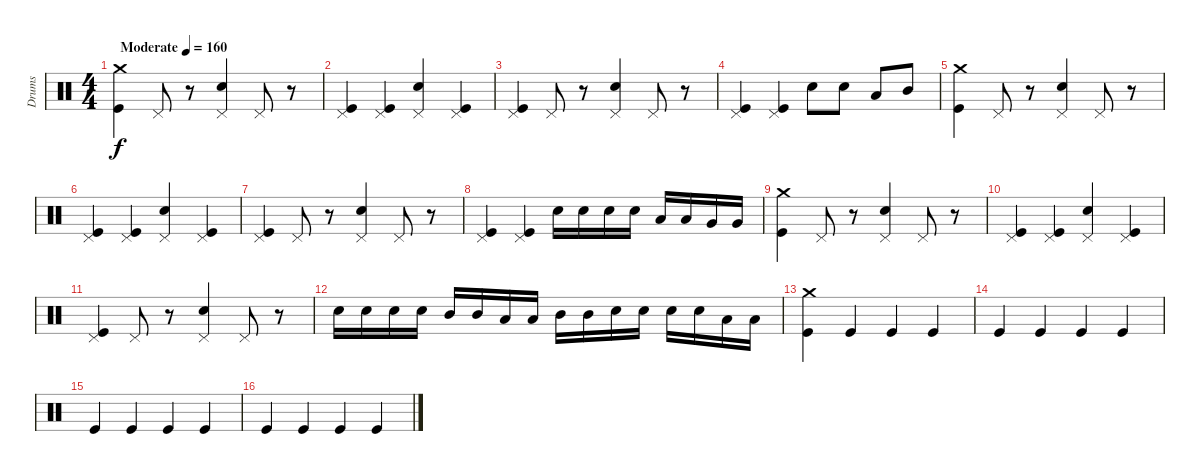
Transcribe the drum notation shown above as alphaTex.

\track ("Drums" "Drums") {instrument percussion}
\staff {score}
\articulation defaults
\ts (4 4)
\tempo (160 "Moderate")
\clef neutral
\ks c
("Crash medium (hit)" "Kick (hit)").4{dy f} "Pedal Hi-Hat (hit)".8 r.8 ("Pedal Hi-Hat (hit)" "Electric Snare (hit)").4 "Pedal Hi-Hat (hit)".8 r.8 |
("Pedal Hi-Hat (hit)" "Kick (hit)").4 ("Pedal Hi-Hat (hit)" "Kick (hit)").4 ("Pedal Hi-Hat (hit)" "Electric Snare (hit)").4 ("Pedal Hi-Hat (hit)" "Kick (hit)").4 |
("Pedal Hi-Hat (hit)" "Kick (hit)").4 "Pedal Hi-Hat (hit)".8 r.8 ("Pedal Hi-Hat (hit)" "Electric Snare (hit)").4 "Pedal Hi-Hat (hit)".8 r.8 |
("Pedal Hi-Hat (hit)" "Kick (hit)").4 ("Pedal Hi-Hat (hit)" "Kick (hit)").4 "Electric Snare (hit)".8 "Electric Snare (hit)".8 "Low Tom (hit)".8 "Mid Tom (hit)".8 |
("Crash medium (hit)" "Kick (hit)").4 "Pedal Hi-Hat (hit)".8 r.8 ("Pedal Hi-Hat (hit)" "Electric Snare (hit)").4 "Pedal Hi-Hat (hit)".8 r.8 |
("Pedal Hi-Hat (hit)" "Kick (hit)").4 ("Pedal Hi-Hat (hit)" "Kick (hit)").4 ("Pedal Hi-Hat (hit)" "Electric Snare (hit)").4 ("Pedal Hi-Hat (hit)" "Kick (hit)").4 |
("Pedal Hi-Hat (hit)" "Kick (hit)").4 "Pedal Hi-Hat (hit)".8 r.8 ("Pedal Hi-Hat (hit)" "Electric Snare (hit)").4 "Pedal Hi-Hat (hit)".8 r.8 |
("Pedal Hi-Hat (hit)" "Kick (hit)").4 ("Pedal Hi-Hat (hit)" "Kick (hit)").4 "Electric Snare (hit)".16 "Electric Snare (hit)".16 "Electric Snare (hit)".16 "Electric Snare (hit)".16 "Low Tom (hit)".16 "Low Tom (hit)".16 "Very Low Tom (hit)".16 "Very Low Tom (hit)".16 |
("Crash medium (hit)" "Kick (hit)").4 "Pedal Hi-Hat (hit)".8 r.8 ("Pedal Hi-Hat (hit)" "Electric Snare (hit)").4 "Pedal Hi-Hat (hit)".8 r.8 |
("Pedal Hi-Hat (hit)" "Kick (hit)").4 ("Pedal Hi-Hat (hit)" "Kick (hit)").4 ("Pedal Hi-Hat (hit)" "Electric Snare (hit)").4 ("Pedal Hi-Hat (hit)" "Kick (hit)").4 |
("Pedal Hi-Hat (hit)" "Kick (hit)").4 "Pedal Hi-Hat (hit)".8 r.8 ("Pedal Hi-Hat (hit)" "Electric Snare (hit)").4 "Pedal Hi-Hat (hit)".8 r.8 |
"Electric Snare (hit)".16 "Electric Snare (hit)".16 "Electric Snare (hit)".16 "Electric Snare (hit)".16 "Mid Tom (hit)".16 "Mid Tom (hit)".16 "Low Tom (hit)".16 "Low Tom (hit)".16 "Mid Tom (hit)".16 "Mid Tom (hit)".16 "Electric Snare (hit)".16 "Electric Snare (hit)".16 "Electric Snare (hit)".16 "Electric Snare (hit)".16 "Low Tom (hit)".16 "Low Tom (hit)".16 |
("Crash medium (hit)" "Kick (hit)").4 "Kick (hit)".4 "Kick (hit)".4 "Kick (hit)".4 |
"Kick (hit)".4 "Kick (hit)".4 "Kick (hit)".4 "Kick (hit)".4 |
"Kick (hit)".4 "Kick (hit)".4 "Kick (hit)".4 "Kick (hit)".4 |
"Kick (hit)".4 "Kick (hit)".4 "Kick (hit)".4 "Kick (hit)".4
